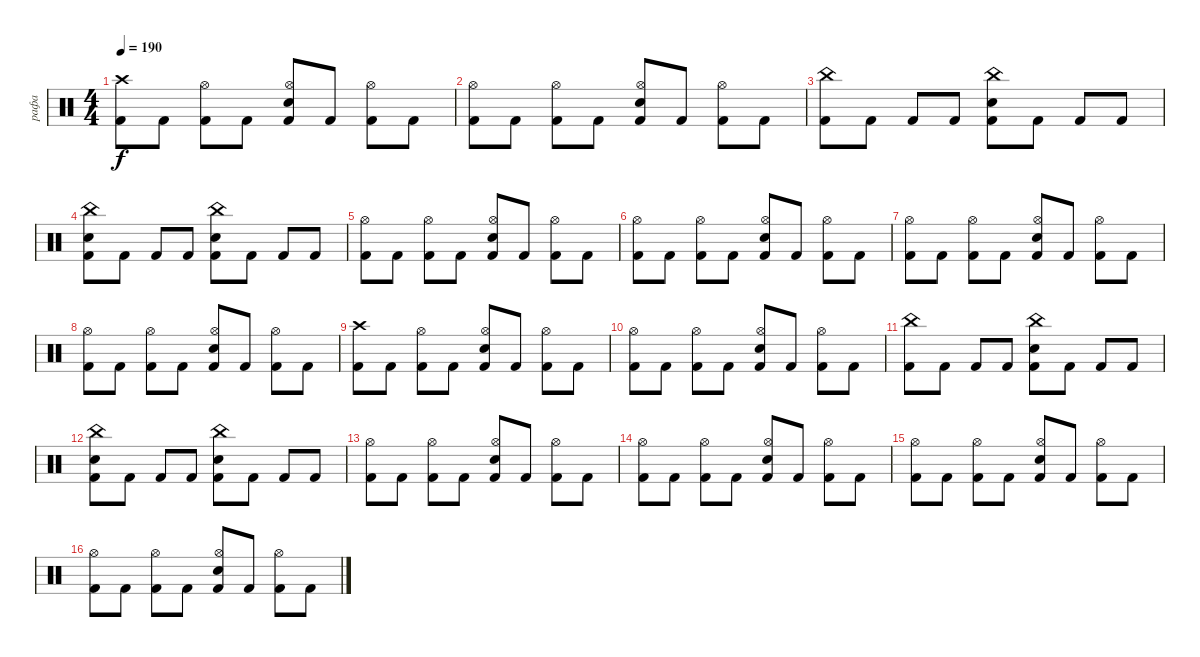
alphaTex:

\track ("рафа" "рафа") {instrument percussion}
\staff {score}
\articulation defaults
\ts (4 4)
\tempo 190
\clef neutral
\ks c
("Kick (hit) 2" "Crash high (hit)").8{dy f} "Kick (hit) 2".8 ("Kick (hit) 2" "Hi-Hat (open)").8 "Kick (hit) 2".8 ("Kick (hit) 2" "Snare (hit) 2" "Hi-Hat (open)").8 "Kick (hit) 2".8 ("Kick (hit) 2" "Hi-Hat (open)").8 "Kick (hit) 2".8 |
("Kick (hit) 2" "Hi-Hat (open)").8 "Kick (hit) 2".8 ("Kick (hit) 2" "Hi-Hat (open)").8 "Kick (hit) 2".8 ("Kick (hit) 2" "Snare (hit) 2" "Hi-Hat (open)").8 "Kick (hit) 2".8 ("Kick (hit) 2" "Hi-Hat (open)").8 "Kick (hit) 2".8 |
("Kick (hit) 2" "China (hit)").8 "Kick (hit) 2".8 "Kick (hit) 2".8 "Kick (hit) 2".8 ("Kick (hit) 2" "Snare (hit) 2" "China (hit)").8 "Kick (hit) 2".8 "Kick (hit) 2".8 "Kick (hit) 2".8 |
("Kick (hit) 2" "Snare (hit) 2" "China (hit)").8 "Kick (hit) 2".8 "Kick (hit) 2".8 "Kick (hit) 2".8 ("Kick (hit) 2" "Snare (hit) 2" "China (hit)").8 "Kick (hit) 2".8 "Kick (hit) 2".8 "Kick (hit) 2".8 |
("Kick (hit) 2" "Hi-Hat (open)").8 "Kick (hit) 2".8 ("Kick (hit) 2" "Hi-Hat (open)").8 "Kick (hit) 2".8 ("Kick (hit) 2" "Snare (hit) 2" "Hi-Hat (open)").8 "Kick (hit) 2".8 ("Kick (hit) 2" "Hi-Hat (open)").8 "Kick (hit) 2".8 |
("Kick (hit) 2" "Hi-Hat (open)").8 "Kick (hit) 2".8 ("Kick (hit) 2" "Hi-Hat (open)").8 "Kick (hit) 2".8 ("Kick (hit) 2" "Snare (hit) 2" "Hi-Hat (open)").8 "Kick (hit) 2".8 ("Kick (hit) 2" "Hi-Hat (open)").8 "Kick (hit) 2".8 |
("Kick (hit) 2" "Hi-Hat (open)").8 "Kick (hit) 2".8 ("Kick (hit) 2" "Hi-Hat (open)").8 "Kick (hit) 2".8 ("Kick (hit) 2" "Snare (hit) 2" "Hi-Hat (open)").8 "Kick (hit) 2".8 ("Kick (hit) 2" "Hi-Hat (open)").8 "Kick (hit) 2".8 |
("Kick (hit) 2" "Hi-Hat (open)").8 "Kick (hit) 2".8 ("Kick (hit) 2" "Hi-Hat (open)").8 "Kick (hit) 2".8 ("Kick (hit) 2" "Snare (hit) 2" "Hi-Hat (open)").8 "Kick (hit) 2".8 ("Kick (hit) 2" "Hi-Hat (open)").8 "Kick (hit) 2".8 |
("Kick (hit) 2" "Crash high (hit)").8 "Kick (hit) 2".8 ("Kick (hit) 2" "Hi-Hat (open)").8 "Kick (hit) 2".8 ("Kick (hit) 2" "Snare (hit) 2" "Hi-Hat (open)").8 "Kick (hit) 2".8 ("Kick (hit) 2" "Hi-Hat (open)").8 "Kick (hit) 2".8 |
("Kick (hit) 2" "Hi-Hat (open)").8 "Kick (hit) 2".8 ("Kick (hit) 2" "Hi-Hat (open)").8 "Kick (hit) 2".8 ("Kick (hit) 2" "Snare (hit) 2" "Hi-Hat (open)").8 "Kick (hit) 2".8 ("Kick (hit) 2" "Hi-Hat (open)").8 "Kick (hit) 2".8 |
("Kick (hit) 2" "China (hit)").8 "Kick (hit) 2".8 "Kick (hit) 2".8 "Kick (hit) 2".8 ("Kick (hit) 2" "Snare (hit) 2" "China (hit)").8 "Kick (hit) 2".8 "Kick (hit) 2".8 "Kick (hit) 2".8 |
("Kick (hit) 2" "Snare (hit) 2" "China (hit)").8 "Kick (hit) 2".8 "Kick (hit) 2".8 "Kick (hit) 2".8 ("Kick (hit) 2" "Snare (hit) 2" "China (hit)").8 "Kick (hit) 2".8 "Kick (hit) 2".8 "Kick (hit) 2".8 |
("Kick (hit) 2" "Hi-Hat (open)").8 "Kick (hit) 2".8 ("Kick (hit) 2" "Hi-Hat (open)").8 "Kick (hit) 2".8 ("Kick (hit) 2" "Snare (hit) 2" "Hi-Hat (open)").8 "Kick (hit) 2".8 ("Kick (hit) 2" "Hi-Hat (open)").8 "Kick (hit) 2".8 |
("Kick (hit) 2" "Hi-Hat (open)").8 "Kick (hit) 2".8 ("Kick (hit) 2" "Hi-Hat (open)").8 "Kick (hit) 2".8 ("Kick (hit) 2" "Snare (hit) 2" "Hi-Hat (open)").8 "Kick (hit) 2".8 ("Kick (hit) 2" "Hi-Hat (open)").8 "Kick (hit) 2".8 |
("Kick (hit) 2" "Hi-Hat (open)").8 "Kick (hit) 2".8 ("Kick (hit) 2" "Hi-Hat (open)").8 "Kick (hit) 2".8 ("Kick (hit) 2" "Snare (hit) 2" "Hi-Hat (open)").8 "Kick (hit) 2".8 ("Kick (hit) 2" "Hi-Hat (open)").8 "Kick (hit) 2".8 |
("Kick (hit) 2" "Hi-Hat (open)").8 "Kick (hit) 2".8 ("Kick (hit) 2" "Hi-Hat (open)").8 "Kick (hit) 2".8 ("Kick (hit) 2" "Snare (hit) 2" "Hi-Hat (open)").8 "Kick (hit) 2".8 ("Kick (hit) 2" "Hi-Hat (open)").8 "Kick (hit) 2".8
